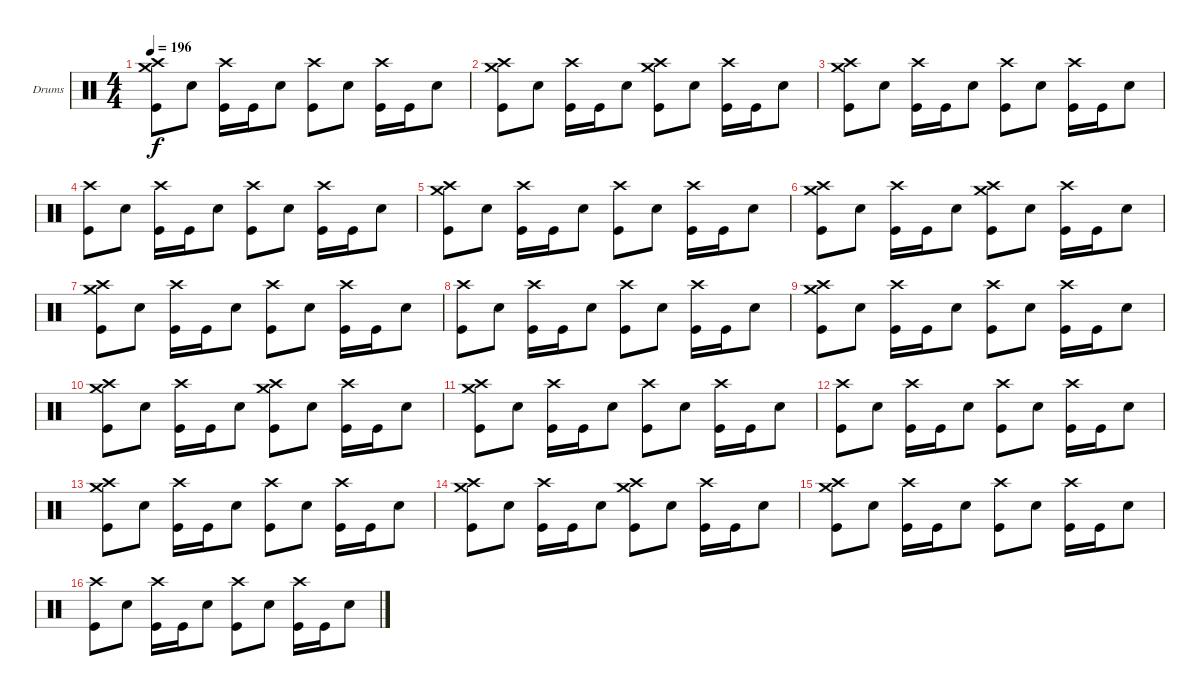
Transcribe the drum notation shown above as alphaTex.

\defaultSystemsLayout 4
\bracketExtendMode groupsimilarinstruments
\firstSystemTrackNameOrientation horizontal
\otherSystemsTrackNameOrientation horizontal
\track ("Lars Ulrich (Drum)" "Drums") {instrument percussion}
\staff {score}
\articulation defaults
\ts (4 4)
\tempo 196
\clef neutral
\scale
0.333333
\ks c
("Crash high (hit)" "Crash medium (hit)" "Kick (hit)").8{dy f} "Snare (hit) 2".8 ("Crash high (hit)" "Kick (hit)").16 "Kick (hit)".16 "Snare (hit) 2".8 ("Crash high (hit)" "Kick (hit)").8 "Snare (hit) 2".8 ("Crash high (hit)" "Kick (hit)").16 "Kick (hit)".16 "Snare (hit) 2".8 |
\scale
0.333333 ("Crash high (hit)" "Crash medium (hit)" "Kick (hit)").8 "Snare (hit) 2".8 ("Crash high (hit)" "Kick (hit)").16 "Kick (hit)".16 "Snare (hit) 2".8 ("Crash high (hit)" "Crash medium (hit)" "Kick (hit)").8 "Snare (hit) 2".8 ("Crash high (hit)" "Kick (hit)").16 "Kick (hit)".16 "Snare (hit) 2".8 |
\scale
0.333333 ("Crash high (hit)" "Crash medium (hit)" "Kick (hit)").8 "Snare (hit) 2".8 ("Crash high (hit)" "Kick (hit)").16 "Kick (hit)".16 "Snare (hit) 2".8 ("Crash high (hit)" "Kick (hit)").8 "Snare (hit) 2".8 ("Crash high (hit)" "Kick (hit)").16 "Kick (hit)".16 "Snare (hit) 2".8 |
\scale
0.333333 ("Crash high (hit)" "Kick (hit)").8 "Snare (hit) 2".8 ("Crash high (hit)" "Kick (hit)").16 "Kick (hit)".16 "Snare (hit) 2".8 ("Crash high (hit)" "Kick (hit)").8 "Snare (hit) 2".8 ("Crash high (hit)" "Kick (hit)").16 "Kick (hit)".16 "Snare (hit) 2".8 |
\scale
0.333333 ("Crash high (hit)" "Crash medium (hit)" "Kick (hit)").8 "Snare (hit) 2".8 ("Crash high (hit)" "Kick (hit)").16 "Kick (hit)".16 "Snare (hit) 2".8 ("Crash high (hit)" "Kick (hit)").8 "Snare (hit) 2".8 ("Crash high (hit)" "Kick (hit)").16 "Kick (hit)".16 "Snare (hit) 2".8 |
\scale
0.333333 ("Crash high (hit)" "Crash medium (hit)" "Kick (hit)").8 "Snare (hit) 2".8 ("Crash high (hit)" "Kick (hit)").16 "Kick (hit)".16 "Snare (hit) 2".8 ("Crash high (hit)" "Crash medium (hit)" "Kick (hit)").8 "Snare (hit) 2".8 ("Crash high (hit)" "Kick (hit)").16 "Kick (hit)".16 "Snare (hit) 2".8 |
\scale
0.333333 ("Crash high (hit)" "Crash medium (hit)" "Kick (hit)").8 "Snare (hit) 2".8 ("Crash high (hit)" "Kick (hit)").16 "Kick (hit)".16 "Snare (hit) 2".8 ("Crash high (hit)" "Kick (hit)").8 "Snare (hit) 2".8 ("Crash high (hit)" "Kick (hit)").16 "Kick (hit)".16 "Snare (hit) 2".8 |
\scale
0.333333 ("Crash high (hit)" "Kick (hit)").8 "Snare (hit) 2".8 ("Crash high (hit)" "Kick (hit)").16 "Kick (hit)".16 "Snare (hit) 2".8 ("Crash high (hit)" "Kick (hit)").8 "Snare (hit) 2".8 ("Crash high (hit)" "Kick (hit)").16 "Kick (hit)".16 "Snare (hit) 2".8 |
\scale
0.333333 ("Crash high (hit)" "Crash medium (hit)" "Kick (hit)").8 "Snare (hit) 2".8 ("Crash high (hit)" "Kick (hit)").16 "Kick (hit)".16 "Snare (hit) 2".8 ("Crash high (hit)" "Kick (hit)").8 "Snare (hit) 2".8 ("Crash high (hit)" "Kick (hit)").16 "Kick (hit)".16 "Snare (hit) 2".8 |
\scale
0.333333 ("Crash high (hit)" "Crash medium (hit)" "Kick (hit)").8 "Snare (hit) 2".8 ("Crash high (hit)" "Kick (hit)").16 "Kick (hit)".16 "Snare (hit) 2".8 ("Crash high (hit)" "Crash medium (hit)" "Kick (hit)").8 "Snare (hit) 2".8 ("Crash high (hit)" "Kick (hit)").16 "Kick (hit)".16 "Snare (hit) 2".8 |
\scale
0.333333 ("Crash high (hit)" "Crash medium (hit)" "Kick (hit)").8 "Snare (hit) 2".8 ("Crash high (hit)" "Kick (hit)").16 "Kick (hit)".16 "Snare (hit) 2".8 ("Crash high (hit)" "Kick (hit)").8 "Snare (hit) 2".8 ("Crash high (hit)" "Kick (hit)").16 "Kick (hit)".16 "Snare (hit) 2".8 |
\scale
0.333333 ("Crash high (hit)" "Kick (hit)").8 "Snare (hit) 2".8 ("Crash high (hit)" "Kick (hit)").16 "Kick (hit)".16 "Snare (hit) 2".8 ("Crash high (hit)" "Kick (hit)").8 "Snare (hit) 2".8 ("Crash high (hit)" "Kick (hit)").16 "Kick (hit)".16 "Snare (hit) 2".8 |
\scale
0.333333 ("Crash high (hit)" "Crash medium (hit)" "Kick (hit)").8 "Snare (hit) 2".8 ("Crash high (hit)" "Kick (hit)").16 "Kick (hit)".16 "Snare (hit) 2".8 ("Crash high (hit)" "Kick (hit)").8 "Snare (hit) 2".8 ("Crash high (hit)" "Kick (hit)").16 "Kick (hit)".16 "Snare (hit) 2".8 |
\scale
0.333333 ("Crash high (hit)" "Crash medium (hit)" "Kick (hit)").8 "Snare (hit) 2".8 ("Crash high (hit)" "Kick (hit)").16 "Kick (hit)".16 "Snare (hit) 2".8 ("Crash high (hit)" "Crash medium (hit)" "Kick (hit)").8 "Snare (hit) 2".8 ("Crash high (hit)" "Kick (hit)").16 "Kick (hit)".16 "Snare (hit) 2".8 |
\scale
0.333333 ("Crash high (hit)" "Crash medium (hit)" "Kick (hit)").8 "Snare (hit) 2".8 ("Crash high (hit)" "Kick (hit)").16 "Kick (hit)".16 "Snare (hit) 2".8 ("Crash high (hit)" "Kick (hit)").8 "Snare (hit) 2".8 ("Crash high (hit)" "Kick (hit)").16 "Kick (hit)".16 "Snare (hit) 2".8 |
\scale
0.333333 ("Crash high (hit)" "Kick (hit)").8 "Snare (hit) 2".8 ("Crash high (hit)" "Kick (hit)").16 "Kick (hit)".16 "Snare (hit) 2".8 ("Crash high (hit)" "Kick (hit)").8 "Snare (hit) 2".8 ("Crash high (hit)" "Kick (hit)").16 "Kick (hit)".16 "Snare (hit) 2".8
